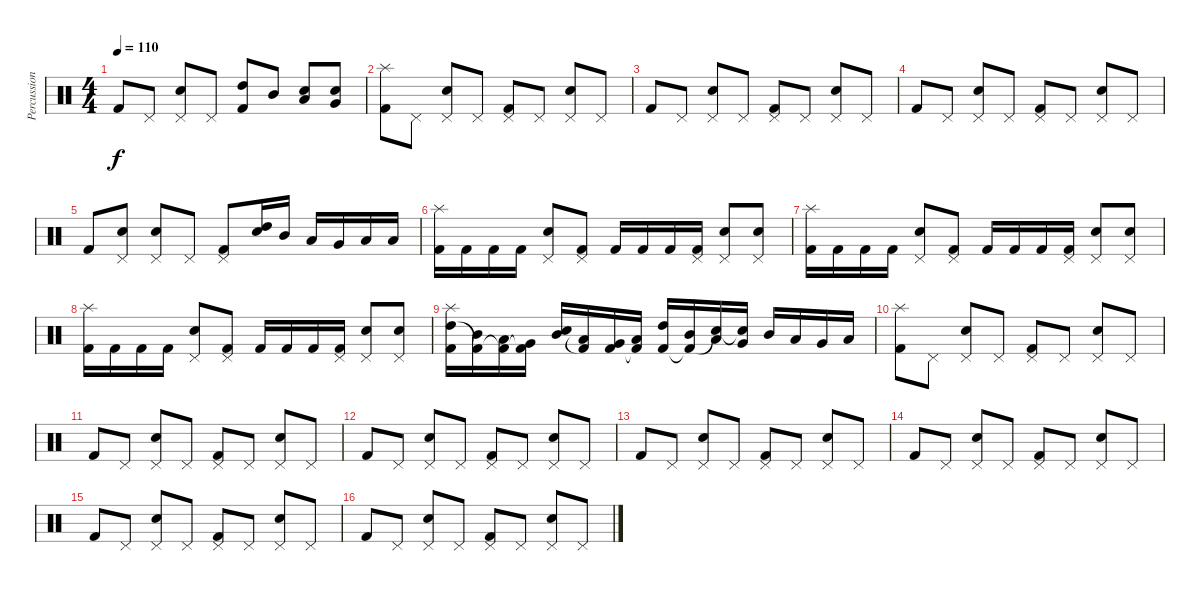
\track ("Percussion" "Percussion") {instrument percussion}
\staff {score}
\articulation defaults
\ts (4 4)
\tempo 110
\clef neutral
\ks c "Kick (hit) 2".8{dy f} "Pedal Hi-Hat (hit)".8
("Pedal Hi-Hat (hit)" "Snare (hit) 2").8 "Pedal Hi-Hat (hit)".8 ("High Tom (hit)" "Kick (hit) 2").8 "Mid Tom (hit)".8 ("Low Tom (hit)" "Snare (hit) 2").8 ("Very Low Tom (hit)" "Snare (hit) 2").8 |
("Splash (hit)" "Kick (hit) 2").8 "Pedal Hi-Hat (hit)".8 ("Pedal Hi-Hat (hit)" "Snare (hit) 2").8 "Pedal Hi-Hat (hit)".8 ("Pedal Hi-Hat (hit)" "Kick (hit) 2").8 "Pedal Hi-Hat (hit)".8 ("Pedal Hi-Hat (hit)" "Snare (hit) 2").8 "Pedal Hi-Hat (hit)".8 |
"Kick (hit) 2".8 "Pedal Hi-Hat (hit)".8 ("Pedal Hi-Hat (hit)" "Snare (hit) 2").8 "Pedal Hi-Hat (hit)".8 ("Pedal Hi-Hat (hit)" "Kick (hit) 2").8 "Pedal Hi-Hat (hit)".8 ("Pedal Hi-Hat (hit)" "Snare (hit) 2").8 "Pedal Hi-Hat (hit)".8 |
"Kick (hit) 2".8 "Pedal Hi-Hat (hit)".8 ("Pedal Hi-Hat (hit)" "Snare (hit) 2").8 "Pedal Hi-Hat (hit)".8 ("Pedal Hi-Hat (hit)" "Kick (hit) 2").8 "Pedal Hi-Hat (hit)".8 ("Pedal Hi-Hat (hit)" "Snare (hit) 2").8 "Pedal Hi-Hat (hit)".8 |
"Kick (hit) 2".8 ("Pedal Hi-Hat (hit)" "Snare (hit) 2").8 ("Pedal Hi-Hat (hit)" "Snare (hit) 2").8 "Pedal Hi-Hat (hit)".8 ("Pedal Hi-Hat (hit)" "Kick (hit) 2").8 ("High Tom (hit)" "Snare (hit) 2").16 "Mid Tom (hit)".16 "Low Tom (hit)".16 "Very Low Tom (hit)".16 "Low Floor Tom (hit)".16 "Low Floor Tom (hit)".16 |
("Splash (hit)" "Kick (hit) 2").16 "Kick (hit) 2".16 "Kick (hit) 2".16 "Kick (hit) 2".16 ("Pedal Hi-Hat (hit)" "Snare (hit) 2").8 ("Pedal Hi-Hat (hit)" "Kick (hit) 2").8 "Kick (hit) 2".16 "Kick (hit) 2".16 "Kick (hit) 2".16 ("Pedal Hi-Hat (hit)" "Kick (hit) 2").16 ("Pedal Hi-Hat (hit)" "Snare (hit) 2").8 ("Pedal Hi-Hat (hit)" "Snare (hit) 2").8 |
("Splash (hit)" "Kick (hit) 2").16 "Kick (hit) 2".16 "Kick (hit) 2".16 "Kick (hit) 2".16 ("Pedal Hi-Hat (hit)" "Snare (hit) 2").8 ("Pedal Hi-Hat (hit)" "Kick (hit) 2").8 "Kick (hit) 2".16 "Kick (hit) 2".16 "Kick (hit) 2".16 ("Pedal Hi-Hat (hit)" "Kick (hit) 2").16 ("Pedal Hi-Hat (hit)" "Snare (hit) 2").8 ("Pedal Hi-Hat (hit)" "Snare (hit) 2").8 |
("Splash (hit)" "Kick (hit) 2").16 "Kick (hit) 2".16 "Kick (hit) 2".16 "Kick (hit) 2".16 ("Pedal Hi-Hat (hit)" "Snare (hit) 2").8 ("Pedal Hi-Hat (hit)" "Kick (hit) 2").8 "Kick (hit) 2".16 "Kick (hit) 2".16 "Kick (hit) 2".16 ("Pedal Hi-Hat (hit)" "Kick (hit) 2").16 ("Pedal Hi-Hat (hit)" "Snare (hit) 2").8 ("Pedal Hi-Hat (hit)" "Snare (hit) 2").8 |
("Splash (hit)" "High Tom (hit)" "Kick (hit) 2").16 ("Mid Tom (hit)" "Kick (hit) 2"{t}).16 ("Low Tom (hit)" "Kick (hit) 2"{t}).16 ("Very Low Tom (hit)" "Kick (hit) 2"{t}).16 ("Mid Tom (hit)" "Snare (hit) 2").16 ("Low Tom (hit)" "Kick (hit) 2"{t}).16 ("Very Low Tom (hit)" "Kick (hit) 2").16 ("Low Floor Tom (hit)" "Kick (hit) 2"{t}).16 ("High Tom (hit)" "Kick (hit) 2").16 ("Mid Tom (hit)" "Kick (hit) 2"{t}).16 ("Low Tom (hit)" "Snare (hit)"{t}).16 ("Very Low Tom (hit)" "Snare (hit)"{t}).16 "Mid Tom (hit)".16 "Low Tom (hit)".16 "Very Low Tom (hit)".16 "Low Floor Tom (hit)".16 |
("Splash (hit)" "Kick (hit) 2").8 "Pedal Hi-Hat (hit)".8 ("Pedal Hi-Hat (hit)" "Snare (hit) 2").8 "Pedal Hi-Hat (hit)".8 ("Pedal Hi-Hat (hit)" "Kick (hit) 2").8 "Pedal Hi-Hat (hit)".8 ("Pedal Hi-Hat (hit)" "Snare (hit) 2").8 "Pedal Hi-Hat (hit)".8 |
"Kick (hit) 2".8 "Pedal Hi-Hat (hit)".8 ("Pedal Hi-Hat (hit)" "Snare (hit) 2").8 "Pedal Hi-Hat (hit)".8 ("Pedal Hi-Hat (hit)" "Kick (hit) 2").8 "Pedal Hi-Hat (hit)".8 ("Pedal Hi-Hat (hit)" "Snare (hit) 2").8 "Pedal Hi-Hat (hit)".8 |
"Kick (hit) 2".8 "Pedal Hi-Hat (hit)".8 ("Pedal Hi-Hat (hit)" "Snare (hit) 2").8 "Pedal Hi-Hat (hit)".8 ("Pedal Hi-Hat (hit)" "Kick (hit) 2").8 "Pedal Hi-Hat (hit)".8 ("Pedal Hi-Hat (hit)" "Snare (hit) 2").8 "Pedal Hi-Hat (hit)".8 |
"Kick (hit) 2".8 "Pedal Hi-Hat (hit)".8 ("Pedal Hi-Hat (hit)" "Snare (hit) 2").8 "Pedal Hi-Hat (hit)".8 ("Pedal Hi-Hat (hit)" "Kick (hit) 2").8 "Pedal Hi-Hat (hit)".8 ("Pedal Hi-Hat (hit)" "Snare (hit) 2").8 "Pedal Hi-Hat (hit)".8 |
"Kick (hit) 2".8 "Pedal Hi-Hat (hit)".8 ("Pedal Hi-Hat (hit)" "Snare (hit) 2").8 "Pedal Hi-Hat (hit)".8 ("Pedal Hi-Hat (hit)" "Kick (hit) 2").8 "Pedal Hi-Hat (hit)".8 ("Pedal Hi-Hat (hit)" "Snare (hit) 2").8 "Pedal Hi-Hat (hit)".8 |
"Kick (hit) 2".8 "Pedal Hi-Hat (hit)".8 ("Pedal Hi-Hat (hit)" "Snare (hit) 2").8 "Pedal Hi-Hat (hit)".8 ("Pedal Hi-Hat (hit)" "Kick (hit) 2").8 "Pedal Hi-Hat (hit)".8 ("Pedal Hi-Hat (hit)" "Snare (hit) 2").8 "Pedal Hi-Hat (hit)".8 |
"Kick (hit) 2".8 "Pedal Hi-Hat (hit)".8 ("Pedal Hi-Hat (hit)" "Snare (hit) 2").8 "Pedal Hi-Hat (hit)".8 ("Pedal Hi-Hat (hit)" "Kick (hit) 2").8 "Pedal Hi-Hat (hit)".8 ("Pedal Hi-Hat (hit)" "Snare (hit) 2").8 "Pedal Hi-Hat (hit)".8
